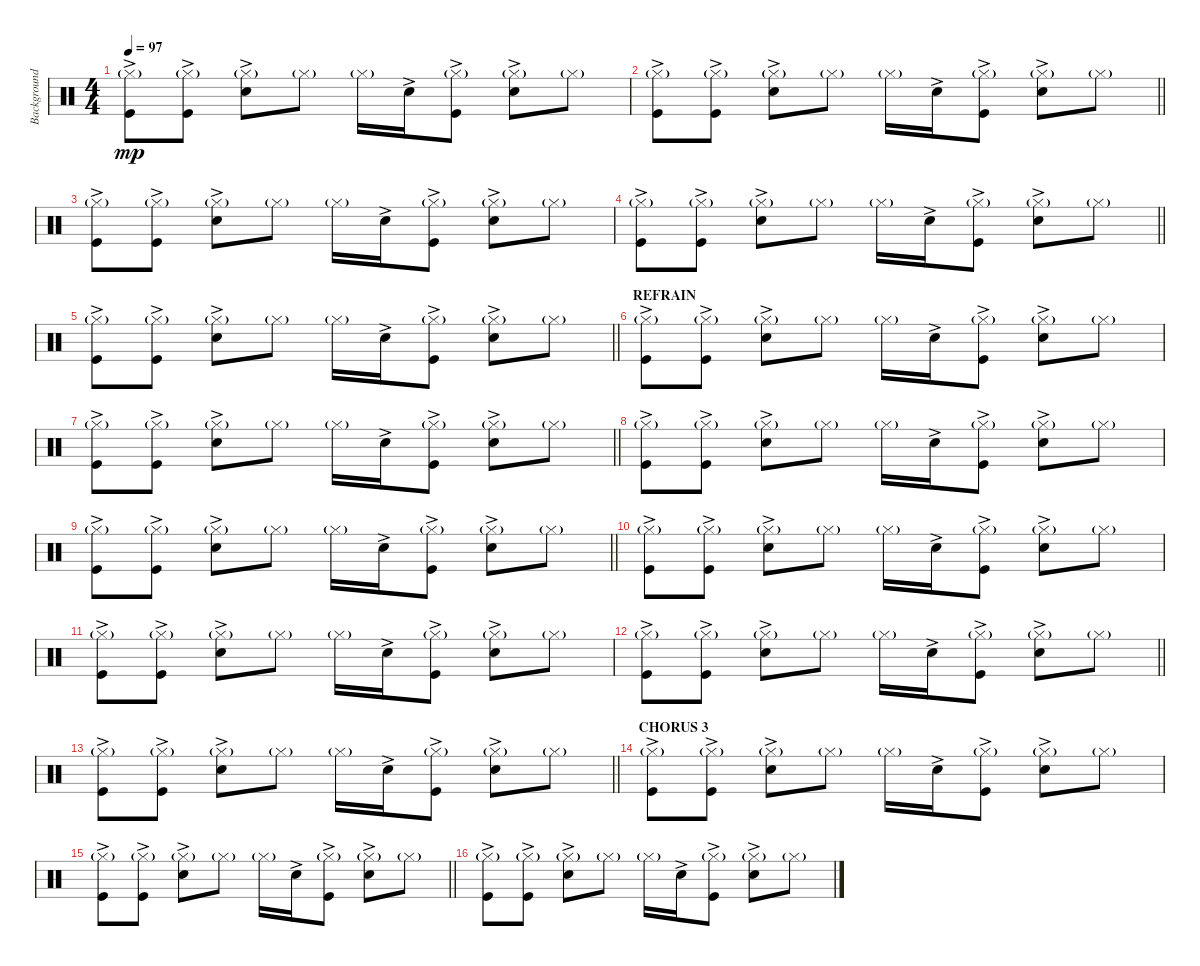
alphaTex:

\track ("Background Drums" "Background") {instrument percussion}
\staff {score}
\articulation defaults
\ts (4 4)
\tempo 97
\clef neutral
\ks c
("Hi-Hat (closed)"{g} "Kick (hit)"{ac}).8{dy mp} ("Hi-Hat (closed)"{g} "Kick (hit)"{ac}).8 ("Hi-Hat (closed)"{g} "Hand Clap (hit)"{ac}).8 "Hi-Hat (closed)"{g}.8 "Hi-Hat (closed)"{g}.16 "Hand Clap (hit)"{ac}.16 ("Hi-Hat (closed)"{g} "Kick (hit)"{ac}).8 ("Hi-Hat (closed)"{g} "Hand Clap (hit)"{ac}).8 "Hi-Hat (closed)"{g}.8 |
\barLineRight lightlight
("Hi-Hat (closed)"{g} "Kick (hit)"{ac}).8 ("Hi-Hat (closed)"{g} "Kick (hit)"{ac}).8 ("Hi-Hat (closed)"{g} "Hand Clap (hit)"{ac}).8 "Hi-Hat (closed)"{g}.8 "Hi-Hat (closed)"{g}.16 "Hand Clap (hit)"{ac}.16 ("Hi-Hat (closed)"{g} "Kick (hit)"{ac}).8 ("Hi-Hat (closed)"{g} "Hand Clap (hit)"{ac}).8 "Hi-Hat (closed)"{g}.8 |
("Hi-Hat (closed)"{g} "Kick (hit)"{ac}).8 ("Hi-Hat (closed)"{g} "Kick (hit)"{ac}).8 ("Hi-Hat (closed)"{g} "Hand Clap (hit)"{ac}).8 "Hi-Hat (closed)"{g}.8 "Hi-Hat (closed)"{g}.16 "Hand Clap (hit)"{ac}.16 ("Hi-Hat (closed)"{g} "Kick (hit)"{ac}).8 ("Hi-Hat (closed)"{g} "Hand Clap (hit)"{ac}).8 "Hi-Hat (closed)"{g}.8 |
\barLineRight lightlight
("Hi-Hat (closed)"{g} "Kick (hit)"{ac}).8 ("Hi-Hat (closed)"{g} "Kick (hit)"{ac}).8 ("Hi-Hat (closed)"{g} "Hand Clap (hit)"{ac}).8 "Hi-Hat (closed)"{g}.8 "Hi-Hat (closed)"{g}.16 "Hand Clap (hit)"{ac}.16 ("Hi-Hat (closed)"{g} "Kick (hit)"{ac}).8 ("Hi-Hat (closed)"{g} "Hand Clap (hit)"{ac}).8 "Hi-Hat (closed)"{g}.8 |
\barLineRight lightlight
("Hi-Hat (closed)"{g} "Kick (hit)"{ac}).8 ("Hi-Hat (closed)"{g} "Kick (hit)"{ac}).8 ("Hi-Hat (closed)"{g} "Hand Clap (hit)"{ac}).8 "Hi-Hat (closed)"{g}.8 "Hi-Hat (closed)"{g}.16 "Hand Clap (hit)"{ac}.16 ("Hi-Hat (closed)"{g} "Kick (hit)"{ac}).8 ("Hi-Hat (closed)"{g} "Hand Clap (hit)"{ac}).8 "Hi-Hat (closed)"{g}.8 |
\section ("" "REFRAIN")
("Hi-Hat (closed)"{g} "Kick (hit)"{ac}).8 ("Hi-Hat (closed)"{g} "Kick (hit)"{ac}).8 ("Hi-Hat (closed)"{g} "Hand Clap (hit)"{ac}).8 "Hi-Hat (closed)"{g}.8 "Hi-Hat (closed)"{g}.16 "Hand Clap (hit)"{ac}.16 ("Hi-Hat (closed)"{g} "Kick (hit)"{ac}).8 ("Hi-Hat (closed)"{g} "Hand Clap (hit)"{ac}).8 "Hi-Hat (closed)"{g}.8 |
\barLineRight lightlight
("Hi-Hat (closed)"{g} "Kick (hit)"{ac}).8 ("Hi-Hat (closed)"{g} "Kick (hit)"{ac}).8 ("Hi-Hat (closed)"{g} "Hand Clap (hit)"{ac}).8 "Hi-Hat (closed)"{g}.8 "Hi-Hat (closed)"{g}.16 "Hand Clap (hit)"{ac}.16 ("Hi-Hat (closed)"{g} "Kick (hit)"{ac}).8 ("Hi-Hat (closed)"{g} "Hand Clap (hit)"{ac}).8 "Hi-Hat (closed)"{g}.8 |
("Hi-Hat (closed)"{g} "Kick (hit)"{ac}).8 ("Hi-Hat (closed)"{g} "Kick (hit)"{ac}).8 ("Hi-Hat (closed)"{g} "Hand Clap (hit)"{ac}).8 "Hi-Hat (closed)"{g}.8 "Hi-Hat (closed)"{g}.16 "Hand Clap (hit)"{ac}.16 ("Hi-Hat (closed)"{g} "Kick (hit)"{ac}).8 ("Hi-Hat (closed)"{g} "Hand Clap (hit)"{ac}).8 "Hi-Hat (closed)"{g}.8 |
\barLineRight lightlight
("Hi-Hat (closed)"{g} "Kick (hit)"{ac}).8 ("Hi-Hat (closed)"{g} "Kick (hit)"{ac}).8 ("Hi-Hat (closed)"{g} "Hand Clap (hit)"{ac}).8 "Hi-Hat (closed)"{g}.8 "Hi-Hat (closed)"{g}.16 "Hand Clap (hit)"{ac}.16 ("Hi-Hat (closed)"{g} "Kick (hit)"{ac}).8 ("Hi-Hat (closed)"{g} "Hand Clap (hit)"{ac}).8 "Hi-Hat (closed)"{g}.8 |
("Hi-Hat (closed)"{g} "Kick (hit)"{ac}).8 ("Hi-Hat (closed)"{g} "Kick (hit)"{ac}).8 ("Hi-Hat (closed)"{g} "Hand Clap (hit)"{ac}).8 "Hi-Hat (closed)"{g}.8 "Hi-Hat (closed)"{g}.16 "Hand Clap (hit)"{ac}.16 ("Hi-Hat (closed)"{g} "Kick (hit)"{ac}).8 ("Hi-Hat (closed)"{g} "Hand Clap (hit)"{ac}).8 "Hi-Hat (closed)"{g}.8 |
("Hi-Hat (closed)"{g} "Kick (hit)"{ac}).8 ("Hi-Hat (closed)"{g} "Kick (hit)"{ac}).8 ("Hi-Hat (closed)"{g} "Hand Clap (hit)"{ac}).8 "Hi-Hat (closed)"{g}.8 "Hi-Hat (closed)"{g}.16 "Hand Clap (hit)"{ac}.16 ("Hi-Hat (closed)"{g} "Kick (hit)"{ac}).8 ("Hi-Hat (closed)"{g} "Hand Clap (hit)"{ac}).8 "Hi-Hat (closed)"{g}.8 |
\barLineRight lightlight
("Hi-Hat (closed)"{g} "Kick (hit)"{ac}).8 ("Hi-Hat (closed)"{g} "Kick (hit)"{ac}).8 ("Hi-Hat (closed)"{g} "Hand Clap (hit)"{ac}).8 "Hi-Hat (closed)"{g}.8 "Hi-Hat (closed)"{g}.16 "Hand Clap (hit)"{ac}.16 ("Hi-Hat (closed)"{g} "Kick (hit)"{ac}).8 ("Hi-Hat (closed)"{g} "Hand Clap (hit)"{ac}).8 "Hi-Hat (closed)"{g}.8 |
\barLineRight lightlight
("Hi-Hat (closed)"{g} "Kick (hit)"{ac}).8 ("Hi-Hat (closed)"{g} "Kick (hit)"{ac}).8 ("Hi-Hat (closed)"{g} "Hand Clap (hit)"{ac}).8 "Hi-Hat (closed)"{g}.8 "Hi-Hat (closed)"{g}.16 "Hand Clap (hit)"{ac}.16 ("Hi-Hat (closed)"{g} "Kick (hit)"{ac}).8 ("Hi-Hat (closed)"{g} "Hand Clap (hit)"{ac}).8 "Hi-Hat (closed)"{g}.8 |
\section ("" "CHORUS 3")
("Hi-Hat (closed)"{g} "Kick (hit)"{ac}).8 ("Hi-Hat (closed)"{g} "Kick (hit)"{ac}).8 ("Hi-Hat (closed)"{g} "Hand Clap (hit)"{ac}).8 "Hi-Hat (closed)"{g}.8 "Hi-Hat (closed)"{g}.16 "Hand Clap (hit)"{ac}.16 ("Hi-Hat (closed)"{g} "Kick (hit)"{ac}).8 ("Hi-Hat (closed)"{g} "Hand Clap (hit)"{ac}).8 "Hi-Hat (closed)"{g}.8 |
\barLineRight lightlight
("Hi-Hat (closed)"{g} "Kick (hit)"{ac}).8 ("Hi-Hat (closed)"{g} "Kick (hit)"{ac}).8 ("Hi-Hat (closed)"{g} "Hand Clap (hit)"{ac}).8 "Hi-Hat (closed)"{g}.8 "Hi-Hat (closed)"{g}.16 "Hand Clap (hit)"{ac}.16 ("Hi-Hat (closed)"{g} "Kick (hit)"{ac}).8 ("Hi-Hat (closed)"{g} "Hand Clap (hit)"{ac}).8 "Hi-Hat (closed)"{g}.8 |
("Hi-Hat (closed)"{g} "Kick (hit)"{ac}).8 ("Hi-Hat (closed)"{g} "Kick (hit)"{ac}).8 ("Hi-Hat (closed)"{g} "Hand Clap (hit)"{ac}).8 "Hi-Hat (closed)"{g}.8 "Hi-Hat (closed)"{g}.16 "Hand Clap (hit)"{ac}.16 ("Hi-Hat (closed)"{g} "Kick (hit)"{ac}).8 ("Hi-Hat (closed)"{g} "Hand Clap (hit)"{ac}).8 "Hi-Hat (closed)"{g}.8
